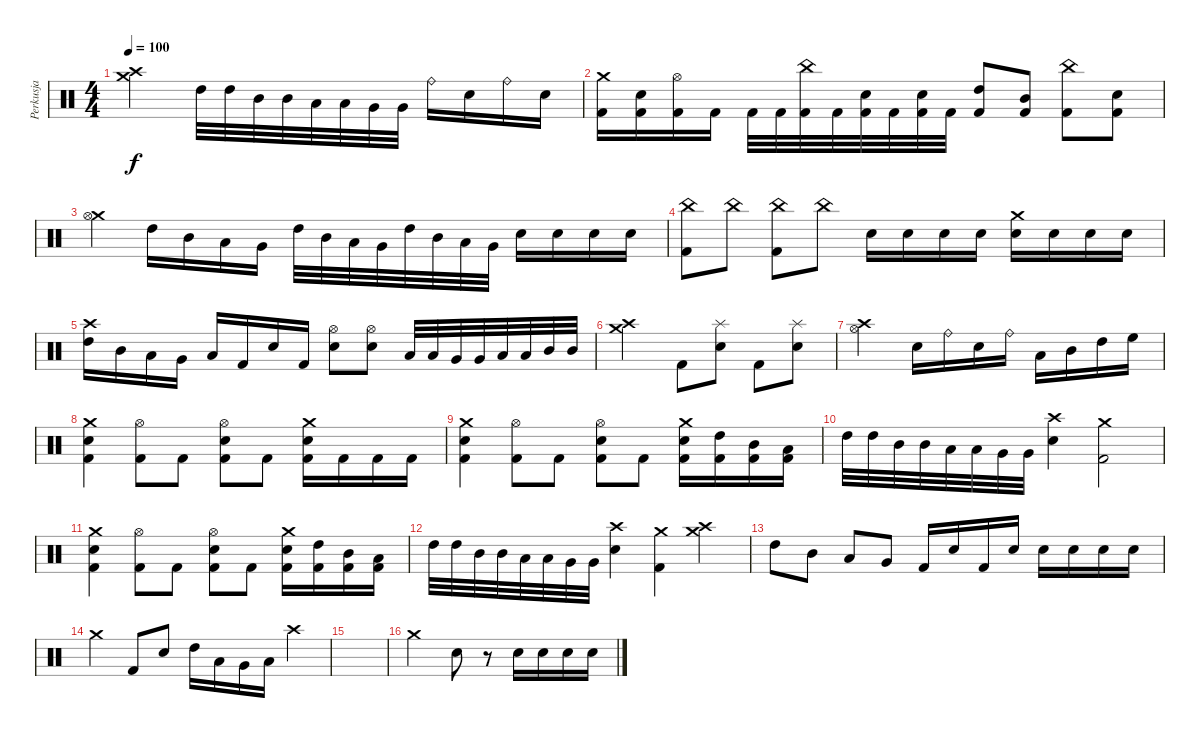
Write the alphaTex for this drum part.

\track ("Perkusja" "Perkusja") {instrument percussion}
\staff {score}
\articulation defaults
\ts (4 4)
\tempo 100
\clef neutral
\ks c
("Crash high (hit)" "Crash medium (hit)").2{dy f} "High Tom (hit)".32 "High Tom (hit)".32 "Mid Tom (hit)".32 "Mid Tom (hit)".32 "Low Tom (hit)".32 "Low Tom (hit)".32 "Very Low Tom (hit)".32 "Very Low Tom (hit)".32 "Ride (bell)".16 "Electric Snare (hit)".16 "Ride (bell)".16 "Electric Snare (hit)".16 |
("Crash medium (hit)" "Kick (hit) 2").16 ("Electric Snare (hit)" "Kick (hit) 2").16 ("Hi-Hat (open)" "Kick (hit) 2").16 "Kick (hit) 2".16 "Kick (hit) 2".32 "Kick (hit) 2".32 ("China (hit)" "Kick (hit) 2").32 "Kick (hit) 2".32 ("Electric Snare (hit)" "Kick (hit) 2").32 "Kick (hit) 2".32 ("Electric Snare (hit)" "Kick (hit) 2").32 "Kick (hit) 2".32 ("High Tom (hit)" "Kick (hit) 2").8 ("Mid Tom (hit)" "Kick (hit) 2").8 ("China (hit)" "Kick (hit) 2").8 ("Snare (hit) 2" "Kick (hit) 2").8 |
("Crash medium (hit)" "Hi-Hat (open)").4 "High Tom (hit)".16 "Mid Tom (hit)".16 "Low Tom (hit)".16 "Very Low Tom (hit)".16 "High Tom (hit)".32 "Mid Tom (hit)".32 "Low Tom (hit)".32 "Very Low Tom (hit)".32 "High Tom (hit)".32 "Mid Tom (hit)".32 "Low Tom (hit)".32 "Very Low Tom (hit)".32 "Electric Snare (hit)".16 "Electric Snare (hit)".16 "Electric Snare (hit)".16 "Electric Snare (hit)".16 |
("China (hit)" "Kick (hit) 2").8 "China (hit)".8 ("China (hit)" "Kick (hit) 2").8 "China (hit)".8 "Electric Snare (hit)".16 "Snare (hit) 2".16 "Electric Snare (hit)".16 "Snare (hit) 2".16 ("Crash medium (hit)" "Electric Snare (hit)").16 "Electric Snare (hit)".16 "Electric Snare (hit)".16 "Electric Snare (hit)".16 |
("Crash high (hit)" "High Tom (hit)").16 "Mid Tom (hit)".16 "Low Tom (hit)".16 "Very Low Tom (hit)".16 "Low Floor Tom (hit)".16 "Kick (hit) 2".16 "Electric Snare (hit)".16 "Kick (hit) 2".16 ("Hi-Hat (open)" "Electric Snare (hit)").8 ("Hi-Hat (open)" "Electric Snare (hit)").8 "Low Floor Tom (hit)".32 "Low Floor Tom (hit)".32 "Very Low Tom (hit)".32 "Very Low Tom (hit)".32 "Low Tom (hit)".32 "Low Tom (hit)".32 "Mid Tom (hit)".32 "Mid Tom (hit)".32 |
("Crash medium (hit)" "Crash high (hit)").2 "Kick (hit) 2".8 ("Splash (hit)" "Electric Snare (hit)").8 "Kick (hit) 2".8 ("Splash (hit)" "Electric Snare (hit)").8 |
("Crash high (hit)" "Hi-Hat (open)").2 "Electric Snare (hit)".16 "Ride (bell)".16 "Electric Snare (hit)".16 "Ride (bell)".16 "Low Tom (hit)".16 "Mid Tom (hit)".16 "High Tom (hit)".16 "High Floor Tom (hit)".16 |
("Crash medium (hit)" "Kick (hit) 2" "Snare (hit) 2").4 ("Hi-Hat (open)" "Kick (hit) 2").8 "Kick (hit) 2".8 ("Hi-Hat (open)" "Electric Snare (hit)" "Kick (hit) 2").8 "Kick (hit) 2".8 ("Crash medium (hit)" "Electric Snare (hit)" "Kick (hit) 2").16 "Kick (hit) 2".16 "Kick (hit) 2".16 "Kick (hit) 2".16 |
("Crash medium (hit)" "Kick (hit) 2" "Snare (hit) 2").4 ("Hi-Hat (open)" "Kick (hit) 2").8 "Kick (hit) 2".8 ("Hi-Hat (open)" "Electric Snare (hit)" "Kick (hit) 2").8 "Kick (hit) 2".8 ("Crash medium (hit)" "Electric Snare (hit)" "Kick (hit) 2").16 ("High Tom (hit)" "Kick (hit) 2").16 ("Mid Tom (hit)" "Kick (hit) 2").16 ("Low Tom (hit)" "Kick (hit) 2").16 |
"High Tom (hit)".32 "High Tom (hit)".32 "Mid Tom (hit)".32 "Mid Tom (hit)".32 "Low Tom (hit)".32 "Low Tom (hit)".32 "Very Low Tom (hit)".32 "Very Low Tom (hit)".32 ("Crash high (hit)" "Snare (hit) 2").4 ("Crash medium (hit)" "Kick (hit) 2").2 |
("Crash medium (hit)" "Kick (hit) 2" "Snare (hit) 2").4 ("Hi-Hat (open)" "Kick (hit) 2").8 "Kick (hit) 2".8 ("Hi-Hat (open)" "Electric Snare (hit)" "Kick (hit) 2").8 "Kick (hit) 2".8 ("Crash medium (hit)" "Electric Snare (hit)" "Kick (hit) 2").16 ("High Tom (hit)" "Kick (hit) 2").16 ("Mid Tom (hit)" "Kick (hit) 2").16 ("Low Tom (hit)" "Kick (hit) 2").16 |
"High Tom (hit)".32 "High Tom (hit)".32 "Mid Tom (hit)".32 "Mid Tom (hit)".32 "Low Tom (hit)".32 "Low Tom (hit)".32 "Very Low Tom (hit)".32 "Very Low Tom (hit)".32 ("Crash high (hit)" "Snare (hit) 2").4 ("Crash medium (hit)" "Kick (hit) 2").4 ("Crash high (hit)" "Crash medium (hit)").4 |
"High Tom (hit)".8 "Mid Tom (hit)".8 "Low Tom (hit)".8 "Very Low Tom (hit)".8 "Kick (hit) 2".16 "Electric Snare (hit)".16 "Kick (hit) 2".16 "Electric Snare (hit)".16 "Electric Snare (hit)".16 "Electric Snare (hit)".16 "Electric Snare (hit)".16 "Electric Snare (hit)".16 |
"Crash medium (hit)".4 "Kick (hit) 2".8 "Electric Snare (hit)".8 "High Tom (hit)".16 "Low Tom (hit)".16 "Very Low Tom (hit)".16 "Low Floor Tom (hit)".16 "Crash high (hit)".4 |
|
"Crash medium (hit)".2 "Electric Snare (hit)".8 r.8 "Electric Snare (hit)".16 "Electric Snare (hit)".16 "Electric Snare (hit)".16 "Electric Snare (hit)".16
